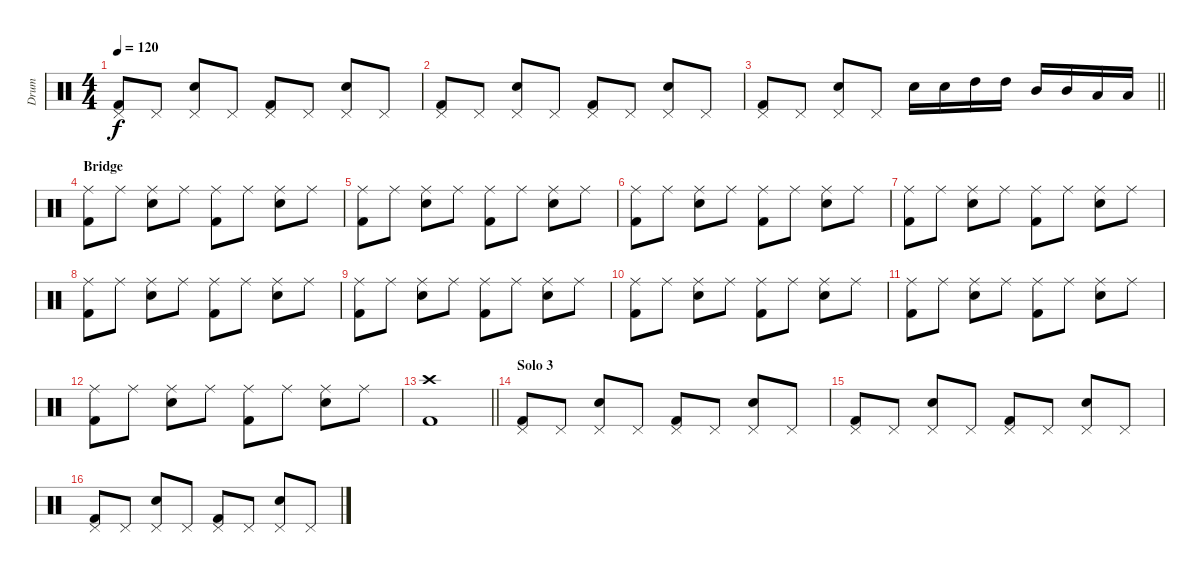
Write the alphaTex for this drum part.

\track ("Drum" "Drum") {instrument percussion}
\staff {score}
\articulation defaults
\ts (4 4)
\tempo 120
\clef neutral
\ks c
("Pedal Hi-Hat (hit)" "Kick (hit) 2").8{dy f} "Pedal Hi-Hat (hit)".8 ("Pedal Hi-Hat (hit)" "Electric Snare (hit)").8 "Pedal Hi-Hat (hit)".8 ("Pedal Hi-Hat (hit)" "Kick (hit) 2").8 "Pedal Hi-Hat (hit)".8 ("Pedal Hi-Hat (hit)" "Electric Snare (hit)").8 "Pedal Hi-Hat (hit)".8 |
("Pedal Hi-Hat (hit)" "Kick (hit) 2").8 "Pedal Hi-Hat (hit)".8 ("Pedal Hi-Hat (hit)" "Electric Snare (hit)").8 "Pedal Hi-Hat (hit)".8 ("Pedal Hi-Hat (hit)" "Kick (hit) 2").8 "Pedal Hi-Hat (hit)".8 ("Pedal Hi-Hat (hit)" "Electric Snare (hit)").8 "Pedal Hi-Hat (hit)".8 |
\barLineRight lightlight
("Pedal Hi-Hat (hit)" "Kick (hit) 2").8 "Pedal Hi-Hat (hit)".8 ("Pedal Hi-Hat (hit)" "Electric Snare (hit)").8 "Pedal Hi-Hat (hit)".8 "Electric Snare (hit)".16 "Electric Snare (hit)".16 "High Tom (hit)".16 "High Tom (hit)".16 "Mid Tom (hit)".16 "Mid Tom (hit)".16 "Low Tom (hit)".16 "Low Tom (hit)".16 |
\section ("" "Bridge")
("Ride (middle)" "Kick (hit) 2").8 "Ride (middle)".8 ("Ride (middle)" "Electric Snare (hit)").8 "Ride (middle)".8 ("Ride (middle)" "Kick (hit) 2").8 "Ride (middle)".8 ("Ride (middle)" "Electric Snare (hit)").8 "Ride (middle)".8 |
("Ride (middle)" "Kick (hit) 2").8 "Ride (middle)".8 ("Ride (middle)" "Electric Snare (hit)").8 "Ride (middle)".8 ("Ride (middle)" "Kick (hit) 2").8 "Ride (middle)".8 ("Ride (middle)" "Electric Snare (hit)").8 "Ride (middle)".8 |
("Ride (middle)" "Kick (hit) 2").8 "Ride (middle)".8 ("Ride (middle)" "Electric Snare (hit)").8 "Ride (middle)".8 ("Ride (middle)" "Kick (hit) 2").8 "Ride (middle)".8 ("Ride (middle)" "Electric Snare (hit)").8 "Ride (middle)".8 |
("Ride (middle)" "Kick (hit) 2").8 "Ride (middle)".8 ("Ride (middle)" "Electric Snare (hit)").8 "Ride (middle)".8 ("Ride (middle)" "Kick (hit) 2").8 "Ride (middle)".8 ("Ride (middle)" "Electric Snare (hit)").8 "Ride (middle)".8 |
("Ride (middle)" "Kick (hit) 2").8 "Ride (middle)".8 ("Ride (middle)" "Electric Snare (hit)").8 "Ride (middle)".8 ("Ride (middle)" "Kick (hit) 2").8 "Ride (middle)".8 ("Ride (middle)" "Electric Snare (hit)").8 "Ride (middle)".8 |
("Ride (middle)" "Kick (hit) 2").8 "Ride (middle)".8 ("Ride (middle)" "Electric Snare (hit)").8 "Ride (middle)".8 ("Ride (middle)" "Kick (hit) 2").8 "Ride (middle)".8 ("Ride (middle)" "Electric Snare (hit)").8 "Ride (middle)".8 |
("Ride (middle)" "Kick (hit) 2").8 "Ride (middle)".8 ("Ride (middle)" "Electric Snare (hit)").8 "Ride (middle)".8 ("Ride (middle)" "Kick (hit) 2").8 "Ride (middle)".8 ("Ride (middle)" "Electric Snare (hit)").8 "Ride (middle)".8 |
("Ride (middle)" "Kick (hit) 2").8 "Ride (middle)".8 ("Ride (middle)" "Electric Snare (hit)").8 "Ride (middle)".8 ("Ride (middle)" "Kick (hit) 2").8 "Ride (middle)".8 ("Ride (middle)" "Electric Snare (hit)").8 "Ride (middle)".8 |
("Ride (middle)" "Kick (hit) 2").8 "Ride (middle)".8 ("Ride (middle)" "Electric Snare (hit)").8 "Ride (middle)".8 ("Ride (middle)" "Kick (hit) 2").8 "Ride (middle)".8 ("Ride (middle)" "Electric Snare (hit)").8 "Ride (middle)".8 |
\barLineRight lightlight
("Crash high (hit)" "Kick (hit) 2").1 |
\section ("" "Solo 3")
("Pedal Hi-Hat (hit)" "Kick (hit) 2").8 "Pedal Hi-Hat (hit)".8 ("Pedal Hi-Hat (hit)" "Electric Snare (hit)").8 "Pedal Hi-Hat (hit)".8 ("Pedal Hi-Hat (hit)" "Kick (hit) 2").8 "Pedal Hi-Hat (hit)".8 ("Pedal Hi-Hat (hit)" "Electric Snare (hit)").8 "Pedal Hi-Hat (hit)".8 |
("Pedal Hi-Hat (hit)" "Kick (hit) 2").8 "Pedal Hi-Hat (hit)".8 ("Pedal Hi-Hat (hit)" "Electric Snare (hit)").8 "Pedal Hi-Hat (hit)".8 ("Pedal Hi-Hat (hit)" "Kick (hit) 2").8 "Pedal Hi-Hat (hit)".8 ("Pedal Hi-Hat (hit)" "Electric Snare (hit)").8 "Pedal Hi-Hat (hit)".8 |
("Pedal Hi-Hat (hit)" "Kick (hit) 2").8 "Pedal Hi-Hat (hit)".8 ("Pedal Hi-Hat (hit)" "Electric Snare (hit)").8 "Pedal Hi-Hat (hit)".8 ("Pedal Hi-Hat (hit)" "Kick (hit) 2").8 "Pedal Hi-Hat (hit)".8 ("Pedal Hi-Hat (hit)" "Electric Snare (hit)").8 "Pedal Hi-Hat (hit)".8
